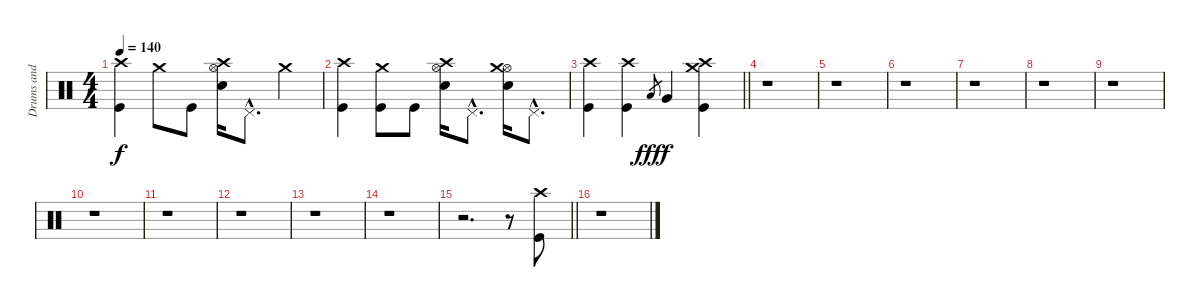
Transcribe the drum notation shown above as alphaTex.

\track ("Drums and percussion" "Drums and ") {instrument percussion}
\staff {score}
\articulation defaults
\ts (4 4)
\tempo 140
\clef neutral
\ks c
("Crash high (hit)" "Kick (hit)").4{dy f} "Crash medium (hit)".8 "Kick (hit)".8 ("Hi-Hat (open)" "Crash high (hit)" "Electric Snare (hit)").16 "Pedal Hi-Hat (hit)"{hac}.8{d} "Crash medium (hit)".4 |
("Crash high (hit)" "Kick (hit)").4 ("Crash medium (hit)" "Kick (hit)").8 "Kick (hit)".8 ("Hi-Hat (open)" "Crash high (hit)" "Electric Snare (hit)").16 "Pedal Hi-Hat (hit)"{hac}.8{d} ("Hi-Hat (open)" "Crash medium (hit)" "Electric Snare (hit)").16 "Pedal Hi-Hat (hit)"{hac}.8{d} |
\barLineRight lightlight
("Crash high (hit)" "Kick (hit)").4 ("Crash high (hit)" "Kick (hit)").4 "Low Tom (hit)".8{gr dy fff} "Very Low Tom (hit)".4{dy f} ("Crash medium (hit)" "Crash high (hit)" "Kick (hit)").4 |
r.1 |
r.1 |
r.1 |
r.1 |
r.1 |
r.1 |
r.1 |
r.1 |
r.1 |
r.1 |
r.1 |
\barLineRight lightlight
r.2{d} r.8 ("Crash high (hit)" "Kick (hit)").8 |
r.1
